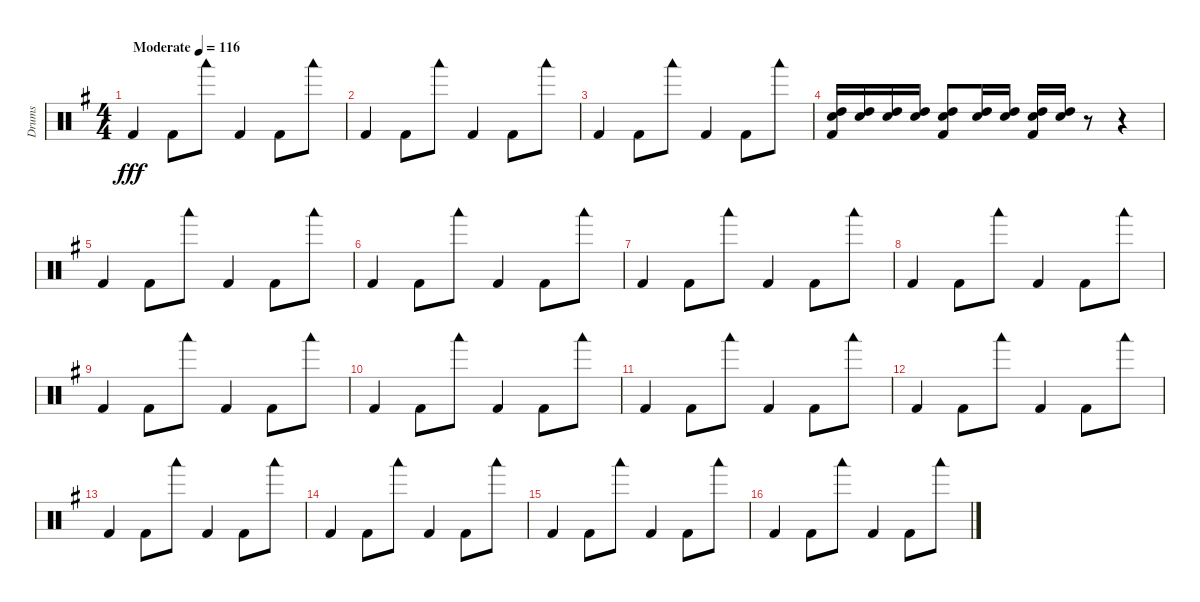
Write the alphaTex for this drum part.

\track ("Drums" "Drums") {instrument percussion}
\staff {score}
\articulation defaults
\ts (4 4)
\tempo (116 "Moderate")
\clef neutral
\ks g "Kick (hit) 2".4{dy fff} "Kick (hit) 2".8 "Woodblock low (hit)".8 "Kick (hit) 2".4 "Kick (hit) 2".8 "Woodblock low (hit)".8
|
"Kick (hit) 2".4 "Kick (hit) 2".8 "Woodblock low (hit)".8 "Kick (hit) 2".4 "Kick (hit) 2".8 "Woodblock low (hit)".8 |
"Kick (hit) 2".4 "Kick (hit) 2".8 "Woodblock low (hit)".8 "Kick (hit) 2".4 "Kick (hit) 2".8 "Woodblock low (hit)".8 |
("Electric Snare (hit)" "High Tom (hit)" "Kick (hit) 2").16 ("Electric Snare (hit)" "High Tom (hit)").16 ("Electric Snare (hit)" "High Tom (hit)").16 ("Electric Snare (hit)" "High Tom (hit)").16 ("Electric Snare (hit)" "High Tom (hit)" "Kick (hit) 2").8 ("Electric Snare (hit)" "High Tom (hit)").16 ("Electric Snare (hit)" "High Tom (hit)").16 ("Electric Snare (hit)" "High Tom (hit)" "Kick (hit) 2").16 ("Electric Snare (hit)" "High Tom (hit)").16 r.8 r.4 |
"Kick (hit) 2".4 "Kick (hit) 2".8 "Woodblock low (hit)".8 "Kick (hit) 2".4 "Kick (hit) 2".8 "Woodblock low (hit)".8 |
"Kick (hit) 2".4 "Kick (hit) 2".8 "Woodblock low (hit)".8 "Kick (hit) 2".4 "Kick (hit) 2".8 "Woodblock low (hit)".8 |
"Kick (hit) 2".4 "Kick (hit) 2".8 "Woodblock low (hit)".8 "Kick (hit) 2".4 "Kick (hit) 2".8 "Woodblock low (hit)".8 |
"Kick (hit) 2".4 "Kick (hit) 2".8 "Woodblock low (hit)".8 "Kick (hit) 2".4 "Kick (hit) 2".8 "Woodblock low (hit)".8 |
"Kick (hit) 2".4 "Kick (hit) 2".8 "Woodblock low (hit)".8 "Kick (hit) 2".4 "Kick (hit) 2".8 "Woodblock low (hit)".8 |
"Kick (hit) 2".4 "Kick (hit) 2".8 "Woodblock low (hit)".8 "Kick (hit) 2".4 "Kick (hit) 2".8 "Woodblock low (hit)".8 |
"Kick (hit) 2".4 "Kick (hit) 2".8 "Woodblock low (hit)".8 "Kick (hit) 2".4 "Kick (hit) 2".8 "Woodblock low (hit)".8 |
"Kick (hit) 2".4 "Kick (hit) 2".8 "Woodblock low (hit)".8 "Kick (hit) 2".4 "Kick (hit) 2".8 "Woodblock low (hit)".8 |
"Kick (hit) 2".4 "Kick (hit) 2".8 "Woodblock low (hit)".8 "Kick (hit) 2".4 "Kick (hit) 2".8 "Woodblock low (hit)".8 |
"Kick (hit) 2".4 "Kick (hit) 2".8 "Woodblock low (hit)".8 "Kick (hit) 2".4 "Kick (hit) 2".8 "Woodblock low (hit)".8 |
"Kick (hit) 2".4 "Kick (hit) 2".8 "Woodblock low (hit)".8 "Kick (hit) 2".4 "Kick (hit) 2".8 "Woodblock low (hit)".8 |
"Kick (hit) 2".4 "Kick (hit) 2".8 "Woodblock low (hit)".8 "Kick (hit) 2".4 "Kick (hit) 2".8 "Woodblock low (hit)".8
